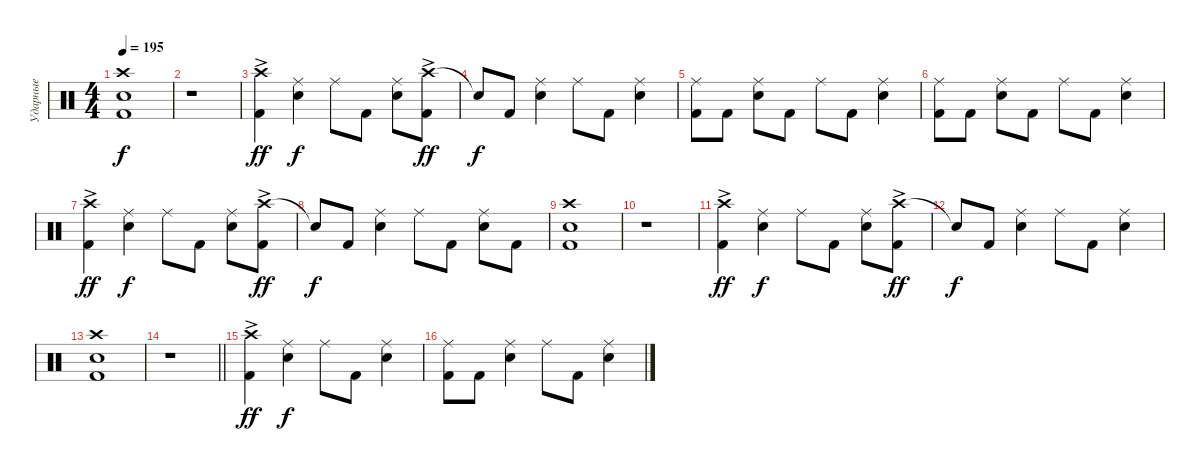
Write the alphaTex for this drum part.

\track ("Ударные" "Ударные") {instrument percussion}
\staff {score}
\articulation defaults
\ts (4 4)
\tempo 195
\clef neutral
\ks c
("Crash high (hit)" "Snare (hit) 2" "Kick (hit) 2").1{dy f} |
r.1 |
("Crash high (hit)"{ac} "Kick (hit) 2").4{dy ff} ("Ride (middle)" "Snare (hit) 2").4{dy f} "Ride (middle)".8 "Kick (hit) 2".8 ("Ride (middle)" "Snare (hit) 2").8 ("Crash high (hit)"{ac} "Kick (hit) 2").8{dy ff} |
"Snare (hit)"{t}.8{dy f} "Kick (hit) 2".8 ("Ride (middle)" "Snare (hit) 2").4 "Ride (middle)".8 "Kick (hit) 2".8 ("Ride (middle)" "Snare (hit) 2").4 |
("Ride (middle)" "Kick (hit) 2").8 "Kick (hit) 2".8 ("Ride (middle)" "Snare (hit) 2").8 "Kick (hit) 2".8 "Ride (middle)".8 "Kick (hit) 2".8 ("Ride (middle)" "Snare (hit) 2").4 |
("Ride (middle)" "Kick (hit) 2").8 "Kick (hit) 2".8 ("Ride (middle)" "Snare (hit) 2").8 "Kick (hit) 2".8 "Ride (middle)".8 "Kick (hit) 2".8 ("Ride (middle)" "Snare (hit) 2").4 |
("Crash high (hit)"{ac} "Kick (hit) 2").4{dy ff} ("Ride (middle)" "Snare (hit) 2").4{dy f} "Ride (middle)".8 "Kick (hit) 2".8 ("Ride (middle)" "Snare (hit) 2").8 ("Crash high (hit)"{ac} "Kick (hit) 2").8{dy ff} |
"Snare (hit)"{t}.8{dy f} "Kick (hit) 2".8 ("Ride (middle)" "Snare (hit) 2").4 "Ride (middle)".8 "Kick (hit) 2".8 ("Ride (middle)" "Snare (hit) 2").8 "Kick (hit) 2".8 |
("Kick (hit) 2" "Snare (hit) 2" "Crash high (hit)").1 |
r.1 |
("Crash high (hit)"{ac} "Kick (hit) 2").4{dy ff} ("Ride (middle)" "Snare (hit) 2").4{dy f} "Ride (middle)".8 "Kick (hit) 2".8 ("Ride (middle)" "Snare (hit) 2").8 ("Crash high (hit)"{ac} "Kick (hit) 2").8{dy ff} |
"Snare (hit)"{t}.8{dy f} "Kick (hit) 2".8 ("Ride (middle)" "Snare (hit) 2").4 "Ride (middle)".8 "Kick (hit) 2".8 ("Ride (middle)" "Snare (hit) 2").4 |
("Kick (hit) 2" "Snare (hit) 2" "Crash high (hit)").1 |
\barLineRight lightlight
r.1 |
("Crash high (hit)"{ac} "Kick (hit) 2").4{dy ff} ("Ride (middle)" "Snare (hit) 2").4{dy f} "Ride (middle)".8 "Kick (hit) 2".8 ("Ride (middle)" "Snare (hit) 2").4 |
("Ride (middle)" "Kick (hit) 2").8 "Kick (hit) 2".8 ("Ride (middle)" "Snare (hit) 2").4 "Ride (middle)".8 "Kick (hit) 2".8 ("Ride (middle)" "Snare (hit) 2").4
